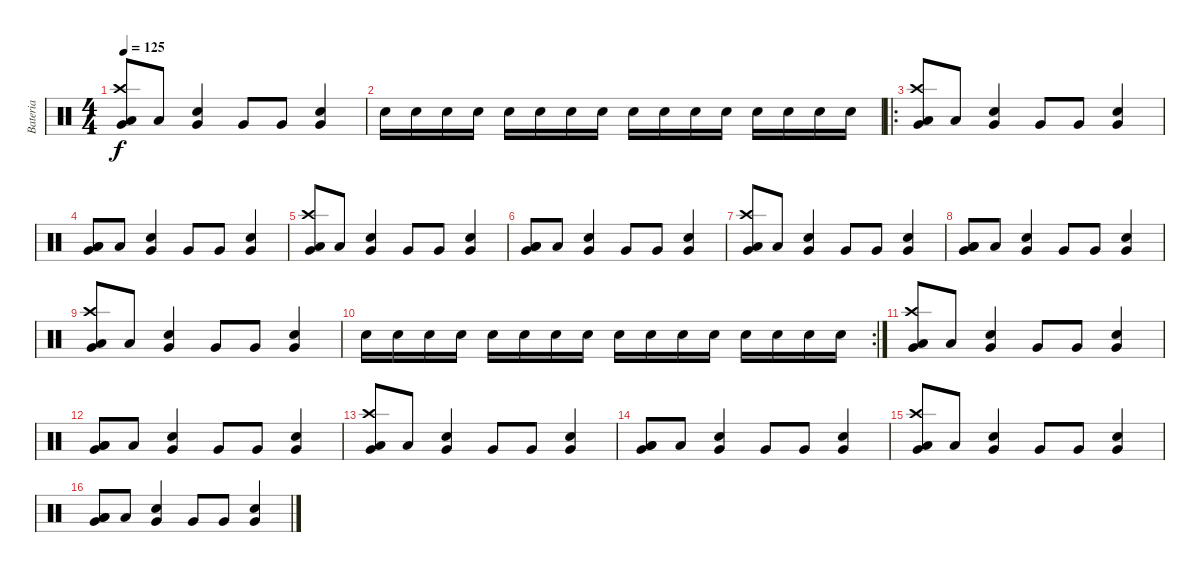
\track ("Bateria" "Bateria") {instrument percussion}
\staff {score}
\articulation defaults
\ts (4 4)
\tempo 125
\clef neutral
\ks c
("Low Tom (hit)" "Crash high (hit)" "Very Low Tom (hit)").8{dy f} "Low Floor Tom (hit)".8 ("Electric Snare (hit)" "Very Low Tom (hit)").4 "Very Low Tom (hit)".8 "Very Low Tom (hit)".8 ("Electric Snare (hit)" "Very Low Tom (hit)").4 |
"Electric Snare (hit)".16 "Electric Snare (hit)".16 "Electric Snare (hit)".16 "Electric Snare (hit)".16 "Electric Snare (hit)".16 "Electric Snare (hit)".16 "Electric Snare (hit)".16 "Electric Snare (hit)".16 "Electric Snare (hit)".16 "Electric Snare (hit)".16 "Electric Snare (hit)".16 "Electric Snare (hit)".16 "Electric Snare (hit)".16 "Electric Snare (hit)".16 "Electric Snare (hit)".16 "Electric Snare (hit)".16 |
\ro
("Low Tom (hit)" "Crash high (hit)" "Very Low Tom (hit)").8 "Low Floor Tom (hit)".8 ("Electric Snare (hit)" "Very Low Tom (hit)").4 "Very Low Tom (hit)".8 "Very Low Tom (hit)".8 ("Electric Snare (hit)" "Very Low Tom (hit)").4 |
("Low Tom (hit)" "Low Floor Tom (hit)" "Very Low Tom (hit)").8 "Low Floor Tom (hit)".8 ("Electric Snare (hit)" "Very Low Tom (hit)").4 "Very Low Tom (hit)".8 "Very Low Tom (hit)".8 ("Electric Snare (hit)" "Very Low Tom (hit)").4 |
("Low Tom (hit)" "Crash high (hit)" "Very Low Tom (hit)").8 "Low Floor Tom (hit)".8 ("Electric Snare (hit)" "Very Low Tom (hit)").4 "Very Low Tom (hit)".8 "Very Low Tom (hit)".8 ("Electric Snare (hit)" "Very Low Tom (hit)").4 |
("Low Tom (hit)" "Low Floor Tom (hit)" "Very Low Tom (hit)").8 "Low Floor Tom (hit)".8 ("Electric Snare (hit)" "Very Low Tom (hit)").4 "Very Low Tom (hit)".8 "Very Low Tom (hit)".8 ("Electric Snare (hit)" "Very Low Tom (hit)").4 |
("Low Tom (hit)" "Crash high (hit)" "Very Low Tom (hit)").8 "Low Floor Tom (hit)".8 ("Electric Snare (hit)" "Very Low Tom (hit)").4 "Very Low Tom (hit)".8 "Very Low Tom (hit)".8 ("Electric Snare (hit)" "Very Low Tom (hit)").4 |
("Low Tom (hit)" "Low Floor Tom (hit)" "Very Low Tom (hit)").8 "Low Floor Tom (hit)".8 ("Electric Snare (hit)" "Very Low Tom (hit)").4 "Very Low Tom (hit)".8 "Very Low Tom (hit)".8 ("Electric Snare (hit)" "Very Low Tom (hit)").4 |
("Low Tom (hit)" "Crash high (hit)" "Very Low Tom (hit)").8 "Low Floor Tom (hit)".8 ("Electric Snare (hit)" "Very Low Tom (hit)").4 "Very Low Tom (hit)".8 "Very Low Tom (hit)".8 ("Electric Snare (hit)" "Very Low Tom (hit)").4 |
\rc 2 "Electric Snare (hit)".16 "Electric Snare (hit)".16 "Electric Snare (hit)".16 "Electric Snare (hit)".16 "Electric Snare (hit)".16 "Electric Snare (hit)".16 "Electric Snare (hit)".16 "Electric Snare (hit)".16 "Electric Snare (hit)".16 "Electric Snare (hit)".16 "Electric Snare (hit)".16 "Electric Snare (hit)".16 "Electric Snare (hit)".16 "Electric Snare (hit)".16 "Electric Snare (hit)".16 "Electric Snare (hit)".16
|
("Low Tom (hit)" "Crash high (hit)" "Very Low Tom (hit)").8 "Low Floor Tom (hit)".8 ("Electric Snare (hit)" "Very Low Tom (hit)").4 "Very Low Tom (hit)".8 "Very Low Tom (hit)".8 ("Electric Snare (hit)" "Very Low Tom (hit)").4 |
("Low Tom (hit)" "Low Floor Tom (hit)" "Very Low Tom (hit)").8 "Low Floor Tom (hit)".8 ("Electric Snare (hit)" "Very Low Tom (hit)").4 "Very Low Tom (hit)".8 "Very Low Tom (hit)".8 ("Electric Snare (hit)" "Very Low Tom (hit)").4 |
("Low Tom (hit)" "Crash high (hit)" "Very Low Tom (hit)").8 "Low Floor Tom (hit)".8 ("Electric Snare (hit)" "Very Low Tom (hit)").4 "Very Low Tom (hit)".8 "Very Low Tom (hit)".8 ("Electric Snare (hit)" "Very Low Tom (hit)").4 |
("Low Tom (hit)" "Low Floor Tom (hit)" "Very Low Tom (hit)").8 "Low Floor Tom (hit)".8 ("Electric Snare (hit)" "Very Low Tom (hit)").4 "Very Low Tom (hit)".8 "Very Low Tom (hit)".8 ("Electric Snare (hit)" "Very Low Tom (hit)").4 |
("Low Tom (hit)" "Crash high (hit)" "Very Low Tom (hit)").8 "Low Floor Tom (hit)".8 ("Electric Snare (hit)" "Very Low Tom (hit)").4 "Very Low Tom (hit)".8 "Very Low Tom (hit)".8 ("Electric Snare (hit)" "Very Low Tom (hit)").4 |
("Low Tom (hit)" "Low Floor Tom (hit)" "Very Low Tom (hit)").8 "Low Floor Tom (hit)".8 ("Electric Snare (hit)" "Very Low Tom (hit)").4 "Very Low Tom (hit)".8 "Very Low Tom (hit)".8 ("Electric Snare (hit)" "Very Low Tom (hit)").4
